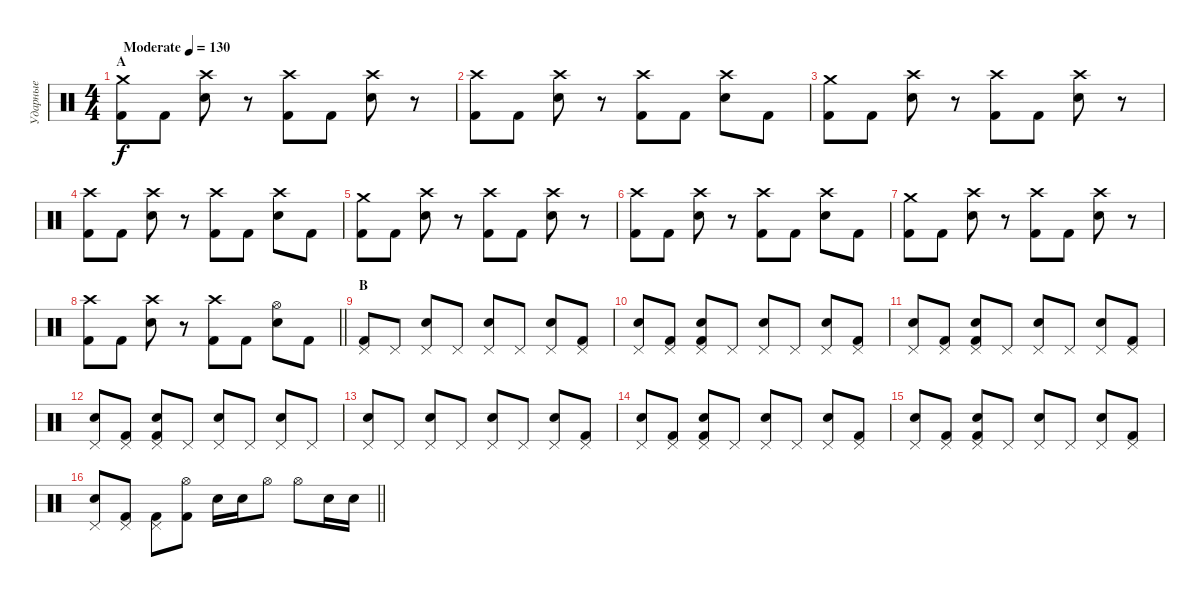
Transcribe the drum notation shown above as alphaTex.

\track ("Ударные" "Ударные") {instrument percussion}
\staff {score}
\articulation defaults
\ts (4 4)
\section ("" "A")
\tempo (130 "Moderate")
\clef neutral
\ks c
("Crash medium (hit)" "Kick (hit) 2").8{dy f} "Kick (hit) 2".8 ("Crash high (hit)" "Electric Snare (hit)").8 r.8 ("Crash high (hit)" "Kick (hit) 2").8 "Kick (hit) 2".8 ("Crash high (hit)" "Electric Snare (hit)").8 r.8 |
("Crash high (hit)" "Kick (hit) 2").8 "Kick (hit) 2".8 ("Crash high (hit)" "Electric Snare (hit)").8 r.8 ("Crash high (hit)" "Kick (hit) 2").8 "Kick (hit) 2".8 ("Crash high (hit)" "Electric Snare (hit)").8 "Kick (hit) 2".8 |
("Crash medium (hit)" "Kick (hit) 2").8 "Kick (hit) 2".8 ("Crash high (hit)" "Electric Snare (hit)").8 r.8 ("Crash high (hit)" "Kick (hit) 2").8 "Kick (hit) 2".8 ("Crash high (hit)" "Electric Snare (hit)").8 r.8 |
("Crash high (hit)" "Kick (hit) 2").8 "Kick (hit) 2".8 ("Crash high (hit)" "Electric Snare (hit)").8 r.8 ("Crash high (hit)" "Kick (hit) 2").8 "Kick (hit) 2".8 ("Crash high (hit)" "Electric Snare (hit)").8 "Kick (hit) 2".8 |
("Crash medium (hit)" "Kick (hit) 2").8 "Kick (hit) 2".8 ("Crash high (hit)" "Electric Snare (hit)").8 r.8 ("Crash high (hit)" "Kick (hit) 2").8 "Kick (hit) 2".8 ("Crash high (hit)" "Electric Snare (hit)").8 r.8 |
("Crash high (hit)" "Kick (hit) 2").8 "Kick (hit) 2".8 ("Crash high (hit)" "Electric Snare (hit)").8 r.8 ("Crash high (hit)" "Kick (hit) 2").8 "Kick (hit) 2".8 ("Crash high (hit)" "Electric Snare (hit)").8 "Kick (hit) 2".8 |
("Crash medium (hit)" "Kick (hit) 2").8 "Kick (hit) 2".8 ("Crash high (hit)" "Electric Snare (hit)").8 r.8 ("Crash high (hit)" "Kick (hit) 2").8 "Kick (hit) 2".8 ("Crash high (hit)" "Electric Snare (hit)").8 r.8 |
\barLineRight lightlight
("Crash high (hit)" "Kick (hit) 2").8 "Kick (hit) 2".8 ("Crash high (hit)" "Electric Snare (hit)").8 r.8 ("Crash high (hit)" "Kick (hit) 2").8 "Kick (hit) 2".8 ("Hi-Hat (open)" "Electric Snare (hit)").8 "Kick (hit) 2".8 |
\section ("" "B")
("Pedal Hi-Hat (hit)" "Kick (hit) 2").8 "Pedal Hi-Hat (hit)".8 ("Pedal Hi-Hat (hit)" "Electric Snare (hit)").8 "Pedal Hi-Hat (hit)".8 ("Pedal Hi-Hat (hit)" "Electric Snare (hit)").8 "Pedal Hi-Hat (hit)".8 ("Pedal Hi-Hat (hit)" "Electric Snare (hit)").8 ("Pedal Hi-Hat (hit)" "Kick (hit) 2").8 |
("Pedal Hi-Hat (hit)" "Electric Snare (hit)").8 ("Pedal Hi-Hat (hit)" "Kick (hit) 2").8 ("Pedal Hi-Hat (hit)" "Electric Snare (hit)" "Kick (hit) 2").8 "Pedal Hi-Hat (hit)".8 ("Pedal Hi-Hat (hit)" "Electric Snare (hit)").8 "Pedal Hi-Hat (hit)".8 ("Pedal Hi-Hat (hit)" "Electric Snare (hit)").8 ("Pedal Hi-Hat (hit)" "Kick (hit) 2").8 |
("Pedal Hi-Hat (hit)" "Electric Snare (hit)").8 ("Pedal Hi-Hat (hit)" "Kick (hit) 2").8 ("Pedal Hi-Hat (hit)" "Electric Snare (hit)" "Kick (hit) 2").8 "Pedal Hi-Hat (hit)".8 ("Pedal Hi-Hat (hit)" "Electric Snare (hit)").8 "Pedal Hi-Hat (hit)".8 ("Pedal Hi-Hat (hit)" "Electric Snare (hit)").8 ("Pedal Hi-Hat (hit)" "Kick (hit) 2").8 |
("Pedal Hi-Hat (hit)" "Electric Snare (hit)").8 ("Pedal Hi-Hat (hit)" "Kick (hit) 2").8 ("Pedal Hi-Hat (hit)" "Electric Snare (hit)" "Kick (hit) 2").8 "Pedal Hi-Hat (hit)".8 ("Pedal Hi-Hat (hit)" "Electric Snare (hit)").8 "Pedal Hi-Hat (hit)".8 ("Pedal Hi-Hat (hit)" "Electric Snare (hit)").8 "Pedal Hi-Hat (hit)".8 |
("Pedal Hi-Hat (hit)" "Electric Snare (hit)").8 "Pedal Hi-Hat (hit)".8 ("Pedal Hi-Hat (hit)" "Electric Snare (hit)").8 "Pedal Hi-Hat (hit)".8 ("Pedal Hi-Hat (hit)" "Electric Snare (hit)").8 "Pedal Hi-Hat (hit)".8 ("Pedal Hi-Hat (hit)" "Electric Snare (hit)").8 ("Pedal Hi-Hat (hit)" "Kick (hit) 2").8 |
("Pedal Hi-Hat (hit)" "Electric Snare (hit)").8 ("Pedal Hi-Hat (hit)" "Kick (hit) 2").8 ("Pedal Hi-Hat (hit)" "Electric Snare (hit)" "Kick (hit) 2").8 "Pedal Hi-Hat (hit)".8 ("Pedal Hi-Hat (hit)" "Electric Snare (hit)").8 "Pedal Hi-Hat (hit)".8 ("Pedal Hi-Hat (hit)" "Electric Snare (hit)").8 ("Pedal Hi-Hat (hit)" "Kick (hit) 2").8 |
("Pedal Hi-Hat (hit)" "Electric Snare (hit)").8 ("Pedal Hi-Hat (hit)" "Kick (hit) 2").8 ("Pedal Hi-Hat (hit)" "Electric Snare (hit)" "Kick (hit) 2").8 "Pedal Hi-Hat (hit)".8 ("Pedal Hi-Hat (hit)" "Electric Snare (hit)").8 "Pedal Hi-Hat (hit)".8 ("Pedal Hi-Hat (hit)" "Electric Snare (hit)").8 ("Pedal Hi-Hat (hit)" "Kick (hit) 2").8 |
\barLineRight lightlight
("Pedal Hi-Hat (hit)" "Electric Snare (hit)").8 ("Pedal Hi-Hat (hit)" "Kick (hit) 2").8 ("Pedal Hi-Hat (hit)" "Kick (hit) 2").8 ("Hi-Hat (open)" "Kick (hit) 2").8 "Electric Snare (hit)".16 "Electric Snare (hit)".16 "Hi-Hat (open)".8 "Hi-Hat (open)".8 "Electric Snare (hit)".16 "Electric Snare (hit)".16
